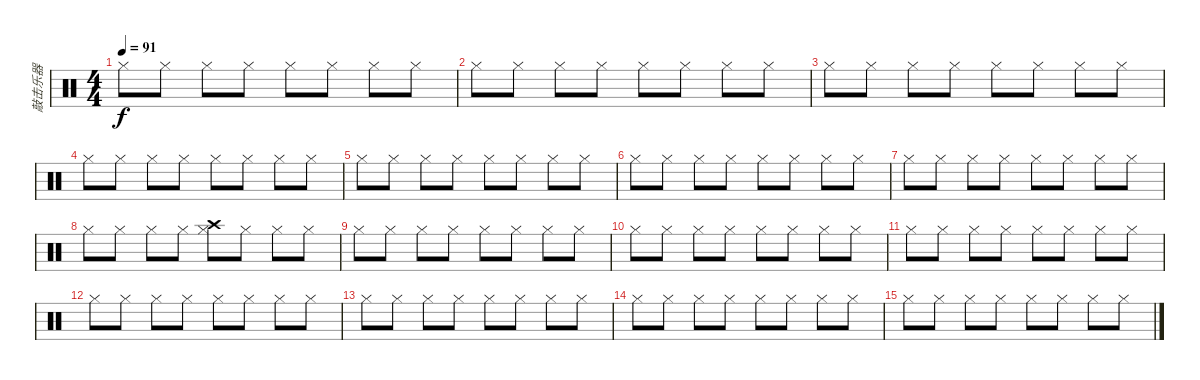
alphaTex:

\track ("敲击乐器" "敲击乐器") {instrument percussion}
\staff {score}
\articulation defaults
\ts (4 4)
\tempo 91
\clef neutral
\ks c "Hi-Hat (closed)".8{dy f} "Hi-Hat (closed)".8 "Hi-Hat (closed)".8 "Hi-Hat (closed)".8 "Hi-Hat (closed)".8 "Hi-Hat (closed)".8 "Hi-Hat (closed)".8 "Hi-Hat (closed)".8
|
"Hi-Hat (closed)".8 "Hi-Hat (closed)".8 "Hi-Hat (closed)".8 "Hi-Hat (closed)".8 "Hi-Hat (closed)".8 "Hi-Hat (closed)".8 "Hi-Hat (closed)".8 "Hi-Hat (closed)".8 |
"Hi-Hat (closed)".8 "Hi-Hat (closed)".8 "Hi-Hat (closed)".8 "Hi-Hat (closed)".8 "Hi-Hat (closed)".8 "Hi-Hat (closed)".8 "Hi-Hat (closed)".8 "Hi-Hat (closed)".8 |
"Hi-Hat (closed)".8 "Hi-Hat (closed)".8 "Hi-Hat (closed)".8 "Hi-Hat (closed)".8 "Hi-Hat (closed)".8 "Hi-Hat (closed)".8 "Hi-Hat (closed)".8 "Hi-Hat (closed)".8 |
"Hi-Hat (closed)".8 "Hi-Hat (closed)".8 "Hi-Hat (closed)".8 "Hi-Hat (closed)".8 "Hi-Hat (closed)".8 "Hi-Hat (closed)".8 "Hi-Hat (closed)".8 "Hi-Hat (closed)".8 |
"Hi-Hat (closed)".8 "Hi-Hat (closed)".8 "Hi-Hat (closed)".8 "Hi-Hat (closed)".8 "Hi-Hat (closed)".8 "Hi-Hat (closed)".8 "Hi-Hat (closed)".8 "Hi-Hat (closed)".8 |
"Hi-Hat (closed)".8 "Hi-Hat (closed)".8 "Hi-Hat (closed)".8 "Hi-Hat (closed)".8 "Hi-Hat (closed)".8 "Hi-Hat (closed)".8 "Hi-Hat (closed)".8 "Hi-Hat (closed)".8 |
"Hi-Hat (closed)".8 "Hi-Hat (closed)".8 "Hi-Hat (closed)".8 "Hi-Hat (closed)".8 ("Hi-Hat (closed)" "Crash high (hit)").8 "Hi-Hat (closed)".8 "Hi-Hat (closed)".8 "Hi-Hat (closed)".8 |
"Hi-Hat (closed)".8 "Hi-Hat (closed)".8 "Hi-Hat (closed)".8 "Hi-Hat (closed)".8 "Hi-Hat (closed)".8 "Hi-Hat (closed)".8 "Hi-Hat (closed)".8 "Hi-Hat (closed)".8 |
"Hi-Hat (closed)".8 "Hi-Hat (closed)".8 "Hi-Hat (closed)".8 "Hi-Hat (closed)".8 "Hi-Hat (closed)".8 "Hi-Hat (closed)".8 "Hi-Hat (closed)".8 "Hi-Hat (closed)".8 |
"Hi-Hat (closed)".8 "Hi-Hat (closed)".8 "Hi-Hat (closed)".8 "Hi-Hat (closed)".8 "Hi-Hat (closed)".8 "Hi-Hat (closed)".8 "Hi-Hat (closed)".8 "Hi-Hat (closed)".8 |
"Hi-Hat (closed)".8 "Hi-Hat (closed)".8 "Hi-Hat (closed)".8 "Hi-Hat (closed)".8 "Hi-Hat (closed)".8 "Hi-Hat (closed)".8 "Hi-Hat (closed)".8 "Hi-Hat (closed)".8 |
"Hi-Hat (closed)".8 "Hi-Hat (closed)".8 "Hi-Hat (closed)".8 "Hi-Hat (closed)".8 "Hi-Hat (closed)".8 "Hi-Hat (closed)".8 "Hi-Hat (closed)".8 "Hi-Hat (closed)".8 |
"Hi-Hat (closed)".8 "Hi-Hat (closed)".8 "Hi-Hat (closed)".8 "Hi-Hat (closed)".8 "Hi-Hat (closed)".8 "Hi-Hat (closed)".8 "Hi-Hat (closed)".8 "Hi-Hat (closed)".8 |
"Hi-Hat (closed)".8 "Hi-Hat (closed)".8 "Hi-Hat (closed)".8 "Hi-Hat (closed)".8 "Hi-Hat (closed)".8 "Hi-Hat (closed)".8 "Hi-Hat (closed)".8 "Hi-Hat (closed)".8
